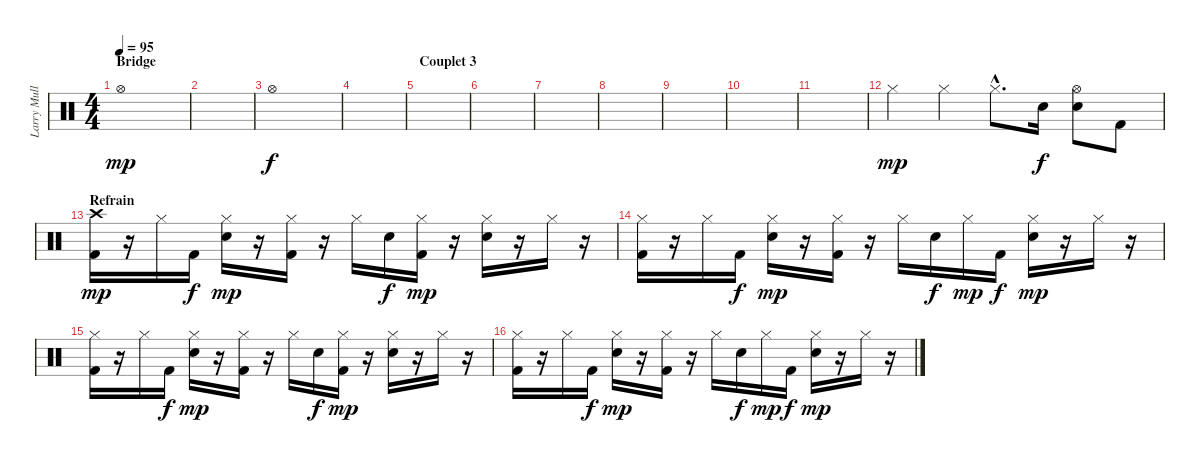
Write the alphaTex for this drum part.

\track ("Larry Mullen Jr" "Larry Mull") {instrument percussion}
\staff {score}
\articulation defaults
\ts (4 4)
\section ("" "Bridge")
\tempo 95
\clef neutral
\ks c "Hi-Hat (open)".1{dy mp}
|
|
"Hi-Hat (open)".1{dy f} |
|
\section ("" "Couplet 3")
|
|
|
|
|
|
|
"Hi-Hat (closed)".4{dy mp} "Hi-Hat (closed)".4 "Hi-Hat (closed)"{hac}.8{d} "Snare (hit) 2".16{dy f} ("Hi-Hat (open)" "Snare (hit) 2").8 "Kick (hit) 2".8 |
\section ("" "Refrain")
("Crash high (hit)" "Kick (hit) 2").16{dy mp} r.16 "Hi-Hat (closed)".16 "Kick (hit) 2".16{dy f} ("Hi-Hat (closed)" "Snare (hit) 2").16{dy mp} r.16 ("Hi-Hat (closed)" "Kick (hit) 2").16 r.16 "Hi-Hat (closed)".16 "Snare (hit) 2".16{dy f} ("Hi-Hat (closed)" "Kick (hit) 2").16{dy mp} r.16 ("Hi-Hat (closed)" "Snare (hit) 2").16 r.16 "Hi-Hat (closed)".16 r.16 |
("Hi-Hat (closed)" "Kick (hit) 2").16 r.16 "Hi-Hat (closed)".16 "Kick (hit) 2".16{dy f} ("Hi-Hat (closed)" "Snare (hit) 2").16{dy mp} r.16 ("Hi-Hat (closed)" "Kick (hit) 2").16 r.16 "Hi-Hat (closed)".16 "Snare (hit) 2".16{dy f} "Hi-Hat (closed)".16{dy mp} "Kick (hit) 2".16{dy f} ("Hi-Hat (closed)" "Snare (hit) 2").16{dy mp} r.16 "Hi-Hat (closed)".16 r.16 |
("Hi-Hat (closed)" "Kick (hit) 2").16 r.16 "Hi-Hat (closed)".16 "Kick (hit) 2".16{dy f} ("Hi-Hat (closed)" "Snare (hit) 2").16{dy mp} r.16 ("Hi-Hat (closed)" "Kick (hit) 2").16 r.16 "Hi-Hat (closed)".16 "Snare (hit) 2".16{dy f} ("Hi-Hat (closed)" "Kick (hit) 2").16{dy mp} r.16 ("Hi-Hat (closed)" "Snare (hit) 2").16 r.16 "Hi-Hat (closed)".16 r.16 |
("Hi-Hat (closed)" "Kick (hit) 2").16 r.16 "Hi-Hat (closed)".16 "Kick (hit) 2".16{dy f} ("Hi-Hat (closed)" "Snare (hit) 2").16{dy mp} r.16 ("Hi-Hat (closed)" "Kick (hit) 2").16 r.16 "Hi-Hat (closed)".16 "Snare (hit) 2".16{dy f} "Hi-Hat (closed)".16{dy mp} "Kick (hit) 2".16{dy f} ("Hi-Hat (closed)" "Snare (hit) 2").16{dy mp} r.16 "Hi-Hat (closed)".16 r.16
